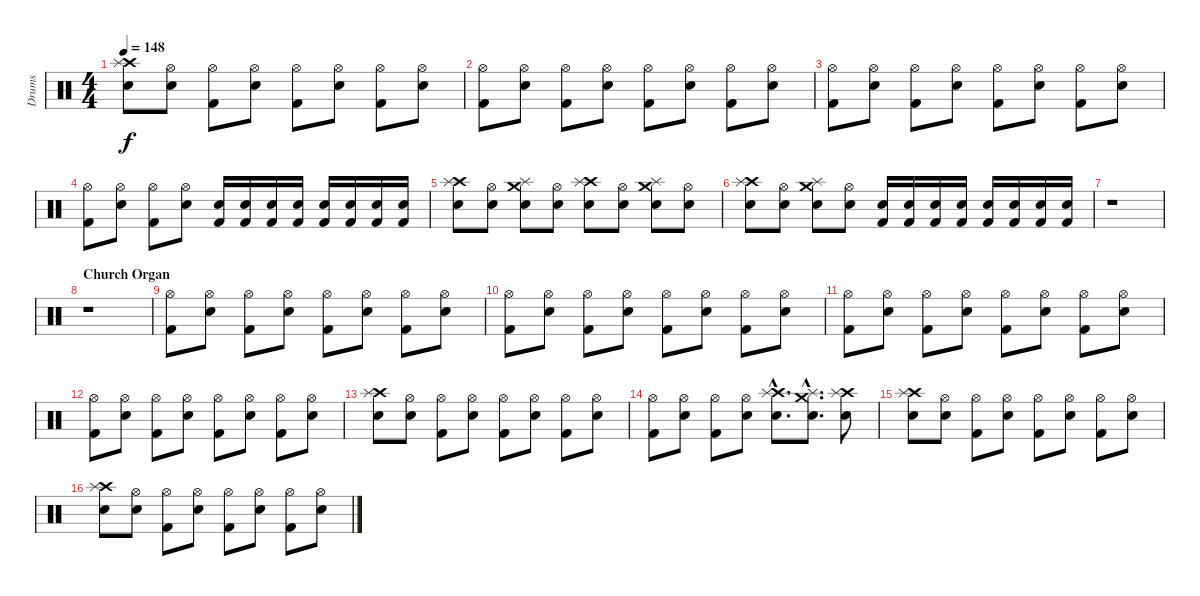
\track ("Drums" "Drums") {instrument percussion}
\staff {score}
\articulation defaults
\ts (4 4)
\tempo 148
\clef neutral
\ks c
("Crash high (hit)" "Splash (hit)" "Snare (hit) 2").8{dy f} ("Hi-Hat (open)" "Snare (hit) 2").8 ("Hi-Hat (open)" "Kick (hit) 2").8 ("Hi-Hat (open)" "Snare (hit) 2").8 ("Hi-Hat (open)" "Kick (hit) 2").8 ("Hi-Hat (open)" "Snare (hit) 2").8 ("Hi-Hat (open)" "Kick (hit) 2").8 ("Hi-Hat (open)" "Snare (hit) 2").8 |
("Hi-Hat (open)" "Kick (hit) 2").8 ("Hi-Hat (open)" "Snare (hit) 2").8 ("Hi-Hat (open)" "Kick (hit) 2").8 ("Hi-Hat (open)" "Snare (hit) 2").8 ("Hi-Hat (open)" "Kick (hit) 2").8 ("Hi-Hat (open)" "Snare (hit) 2").8 ("Hi-Hat (open)" "Kick (hit) 2").8 ("Hi-Hat (open)" "Snare (hit) 2").8 |
("Hi-Hat (open)" "Kick (hit) 2").8 ("Hi-Hat (open)" "Snare (hit) 2").8 ("Hi-Hat (open)" "Kick (hit) 2").8 ("Hi-Hat (open)" "Snare (hit) 2").8 ("Hi-Hat (open)" "Kick (hit) 2").8 ("Hi-Hat (open)" "Snare (hit) 2").8 ("Hi-Hat (open)" "Kick (hit) 2").8 ("Hi-Hat (open)" "Snare (hit) 2").8 |
("Hi-Hat (open)" "Kick (hit) 2").8 ("Hi-Hat (open)" "Snare (hit) 2").8 ("Hi-Hat (open)" "Kick (hit) 2").8 ("Hi-Hat (open)" "Snare (hit) 2").8 ("Snare (hit) 2" "Kick (hit) 2").16 ("Snare (hit) 2" "Kick (hit) 2").16 ("Snare (hit) 2" "Kick (hit) 2").16 ("Snare (hit) 2" "Kick (hit) 2").16 ("Snare (hit) 2" "Kick (hit) 2").16 ("Snare (hit) 2" "Kick (hit) 2").16 ("Snare (hit) 2" "Kick (hit) 2").16 ("Snare (hit) 2" "Kick (hit) 2").16 |
("Crash high (hit)" "Splash (hit)" "Snare (hit) 2").8 ("Hi-Hat (open)" "Snare (hit) 2").8 ("Crash medium (hit)" "Splash (hit)" "Snare (hit) 2").8 ("Hi-Hat (open)" "Snare (hit) 2").8 ("Crash high (hit)" "Splash (hit)" "Snare (hit) 2").8 ("Hi-Hat (open)" "Snare (hit) 2").8 ("Crash medium (hit)" "Splash (hit)" "Snare (hit) 2").8 ("Hi-Hat (open)" "Snare (hit) 2").8 |
("Crash high (hit)" "Splash (hit)" "Snare (hit) 2").8 ("Hi-Hat (open)" "Snare (hit) 2").8 ("Crash medium (hit)" "Splash (hit)" "Snare (hit) 2").8 ("Hi-Hat (open)" "Snare (hit) 2").8 ("Snare (hit) 2" "Kick (hit) 2").16 ("Snare (hit) 2" "Kick (hit) 2").16 ("Snare (hit) 2" "Kick (hit) 2").16 ("Snare (hit) 2" "Kick (hit) 2").16 ("Snare (hit) 2" "Kick (hit) 2").16 ("Snare (hit) 2" "Kick (hit) 2").16 ("Snare (hit) 2" "Kick (hit) 2").16 ("Snare (hit) 2" "Kick (hit) 2").16 |
r.1 |
\section ("" "Church Organ")
r.1 |
("Hi-Hat (open)" "Kick (hit) 2").8 ("Hi-Hat (open)" "Snare (hit) 2").8 ("Hi-Hat (open)" "Kick (hit) 2").8 ("Hi-Hat (open)" "Snare (hit) 2").8 ("Hi-Hat (open)" "Kick (hit) 2").8 ("Hi-Hat (open)" "Snare (hit) 2").8 ("Hi-Hat (open)" "Kick (hit) 2").8 ("Hi-Hat (open)" "Snare (hit) 2").8 |
("Hi-Hat (open)" "Kick (hit) 2").8 ("Hi-Hat (open)" "Snare (hit) 2").8 ("Hi-Hat (open)" "Kick (hit) 2").8 ("Hi-Hat (open)" "Snare (hit) 2").8 ("Hi-Hat (open)" "Kick (hit) 2").8 ("Hi-Hat (open)" "Snare (hit) 2").8 ("Hi-Hat (open)" "Kick (hit) 2").8 ("Hi-Hat (open)" "Snare (hit) 2").8 |
("Hi-Hat (open)" "Kick (hit) 2").8 ("Hi-Hat (open)" "Snare (hit) 2").8 ("Hi-Hat (open)" "Kick (hit) 2").8 ("Hi-Hat (open)" "Snare (hit) 2").8 ("Hi-Hat (open)" "Kick (hit) 2").8 ("Hi-Hat (open)" "Snare (hit) 2").8 ("Hi-Hat (open)" "Kick (hit) 2").8 ("Hi-Hat (open)" "Snare (hit) 2").8 |
("Hi-Hat (open)" "Kick (hit) 2").8 ("Hi-Hat (open)" "Snare (hit) 2").8 ("Hi-Hat (open)" "Kick (hit) 2").8 ("Hi-Hat (open)" "Snare (hit) 2").8 ("Hi-Hat (open)" "Kick (hit) 2").8 ("Hi-Hat (open)" "Snare (hit) 2").8 ("Hi-Hat (open)" "Kick (hit) 2").8 ("Hi-Hat (open)" "Snare (hit) 2").8 |
("Crash high (hit)" "Splash (hit)" "Snare (hit) 2").8 ("Hi-Hat (open)" "Snare (hit) 2").8 ("Hi-Hat (open)" "Kick (hit) 2").8 ("Hi-Hat (open)" "Snare (hit) 2").8 ("Hi-Hat (open)" "Kick (hit) 2").8 ("Hi-Hat (open)" "Snare (hit) 2").8 ("Hi-Hat (open)" "Kick (hit) 2").8 ("Hi-Hat (open)" "Snare (hit) 2").8 |
("Hi-Hat (open)" "Kick (hit) 2").8 ("Hi-Hat (open)" "Snare (hit) 2").8 ("Hi-Hat (open)" "Kick (hit) 2").8 ("Hi-Hat (open)" "Snare (hit) 2").8 ("Crash high (hit)"{hac} "Splash (hit)"{hac} "Snare (hit) 2"{hac}).8{d} ("Crash medium (hit)"{hac} "Splash (hit)"{hac} "Snare (hit) 2"{hac}).8{d} ("Crash high (hit)" "Splash (hit)" "Snare (hit) 2").8 |
("Crash high (hit)" "Splash (hit)" "Snare (hit) 2").8 ("Hi-Hat (open)" "Snare (hit) 2").8 ("Hi-Hat (open)" "Kick (hit) 2").8 ("Hi-Hat (open)" "Snare (hit) 2").8 ("Hi-Hat (open)" "Kick (hit) 2").8 ("Hi-Hat (open)" "Snare (hit) 2").8 ("Hi-Hat (open)" "Kick (hit) 2").8 ("Hi-Hat (open)" "Snare (hit) 2").8 |
("Crash high (hit)" "Splash (hit)" "Snare (hit) 2").8 ("Hi-Hat (open)" "Snare (hit) 2").8 ("Hi-Hat (open)" "Kick (hit) 2").8 ("Hi-Hat (open)" "Snare (hit) 2").8 ("Hi-Hat (open)" "Kick (hit) 2").8 ("Hi-Hat (open)" "Snare (hit) 2").8 ("Hi-Hat (open)" "Kick (hit) 2").8 ("Hi-Hat (open)" "Snare (hit) 2").8
